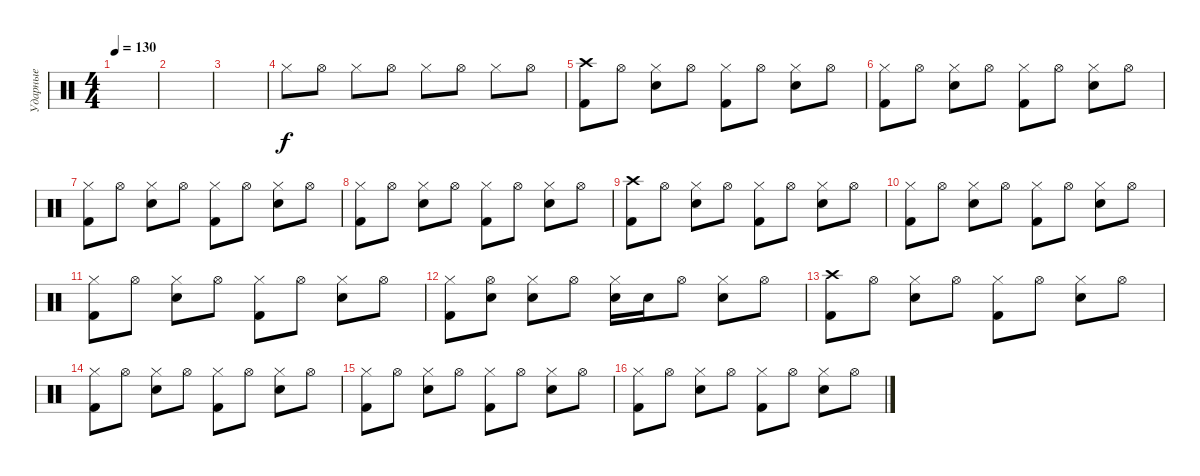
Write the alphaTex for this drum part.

\track ("Ударные" "Ударные") {instrument percussion}
\staff {score}
\articulation defaults
\ts (4 4)
\tempo 130
\clef neutral
\ks c
|
|
|
"Hi-Hat (closed)".8 "Hi-Hat (open)".8 "Hi-Hat (closed)".8 "Hi-Hat (open)".8 "Hi-Hat (closed)".8 "Hi-Hat (open)".8 "Hi-Hat (closed)".8 "Hi-Hat (open)".8 |
("Crash high (hit)" "Kick (hit) 2").8 "Hi-Hat (open)".8 ("Hi-Hat (closed)" "Snare (hit) 2").8 "Hi-Hat (open)".8 ("Hi-Hat (closed)" "Kick (hit) 2").8 "Hi-Hat (open)".8 ("Hi-Hat (closed)" "Snare (hit) 2").8 "Hi-Hat (open)".8 |
("Hi-Hat (closed)" "Kick (hit) 2").8 "Hi-Hat (open)".8 ("Hi-Hat (closed)" "Snare (hit) 2").8 "Hi-Hat (open)".8 ("Hi-Hat (closed)" "Kick (hit) 2").8 "Hi-Hat (open)".8 ("Hi-Hat (closed)" "Snare (hit) 2").8 "Hi-Hat (open)".8 |
("Hi-Hat (closed)" "Kick (hit) 2").8 "Hi-Hat (open)".8 ("Hi-Hat (closed)" "Snare (hit) 2").8 "Hi-Hat (open)".8 ("Hi-Hat (closed)" "Kick (hit) 2").8 "Hi-Hat (open)".8 ("Hi-Hat (closed)" "Snare (hit) 2").8 "Hi-Hat (open)".8 |
("Hi-Hat (closed)" "Kick (hit) 2").8 "Hi-Hat (open)".8 ("Hi-Hat (closed)" "Snare (hit) 2").8 "Hi-Hat (open)".8 ("Hi-Hat (closed)" "Kick (hit) 2").8 "Hi-Hat (open)".8 ("Hi-Hat (closed)" "Snare (hit) 2").8 "Hi-Hat (open)".8 |
("Crash high (hit)" "Kick (hit) 2").8 "Hi-Hat (open)".8 ("Hi-Hat (closed)" "Snare (hit) 2").8 "Hi-Hat (open)".8 ("Hi-Hat (closed)" "Kick (hit) 2").8 "Hi-Hat (open)".8 ("Hi-Hat (closed)" "Snare (hit) 2").8 "Hi-Hat (open)".8 |
("Hi-Hat (closed)" "Kick (hit) 2").8 "Hi-Hat (open)".8 ("Hi-Hat (closed)" "Snare (hit) 2").8 "Hi-Hat (open)".8 ("Hi-Hat (closed)" "Kick (hit) 2").8 "Hi-Hat (open)".8 ("Hi-Hat (closed)" "Snare (hit) 2").8 "Hi-Hat (open)".8 |
("Hi-Hat (closed)" "Kick (hit) 2").8 "Hi-Hat (open)".8 ("Hi-Hat (closed)" "Snare (hit) 2").8 "Hi-Hat (open)".8 ("Hi-Hat (closed)" "Kick (hit) 2").8 "Hi-Hat (open)".8 ("Hi-Hat (closed)" "Snare (hit) 2").8 "Hi-Hat (open)".8 |
("Hi-Hat (closed)" "Kick (hit) 2").8 ("Hi-Hat (open)" "Snare (hit) 2").8 ("Hi-Hat (closed)" "Snare (hit) 2").8 "Hi-Hat (open)".8 ("Hi-Hat (closed)" "Snare (hit) 2").16 "Snare (hit) 2".16 "Hi-Hat (open)".8 ("Hi-Hat (closed)" "Snare (hit) 2").8 "Hi-Hat (open)".8 |
("Crash high (hit)" "Kick (hit) 2").8 "Hi-Hat (open)".8 ("Hi-Hat (closed)" "Snare (hit) 2").8 "Hi-Hat (open)".8 ("Hi-Hat (closed)" "Kick (hit) 2").8 "Hi-Hat (open)".8 ("Hi-Hat (closed)" "Snare (hit) 2").8 "Hi-Hat (open)".8 |
("Hi-Hat (closed)" "Kick (hit) 2").8 "Hi-Hat (open)".8 ("Hi-Hat (closed)" "Snare (hit) 2").8 "Hi-Hat (open)".8 ("Hi-Hat (closed)" "Kick (hit) 2").8 "Hi-Hat (open)".8 ("Hi-Hat (closed)" "Snare (hit) 2").8 "Hi-Hat (open)".8 |
("Hi-Hat (closed)" "Kick (hit) 2").8 "Hi-Hat (open)".8 ("Hi-Hat (closed)" "Snare (hit) 2").8 "Hi-Hat (open)".8 ("Hi-Hat (closed)" "Kick (hit) 2").8 "Hi-Hat (open)".8 ("Hi-Hat (closed)" "Snare (hit) 2").8 "Hi-Hat (open)".8 |
("Hi-Hat (closed)" "Kick (hit) 2").8 "Hi-Hat (open)".8 ("Hi-Hat (closed)" "Snare (hit) 2").8 "Hi-Hat (open)".8 ("Hi-Hat (closed)" "Kick (hit) 2").8 "Hi-Hat (open)".8 ("Hi-Hat (closed)" "Snare (hit) 2").8 "Hi-Hat (open)".8
